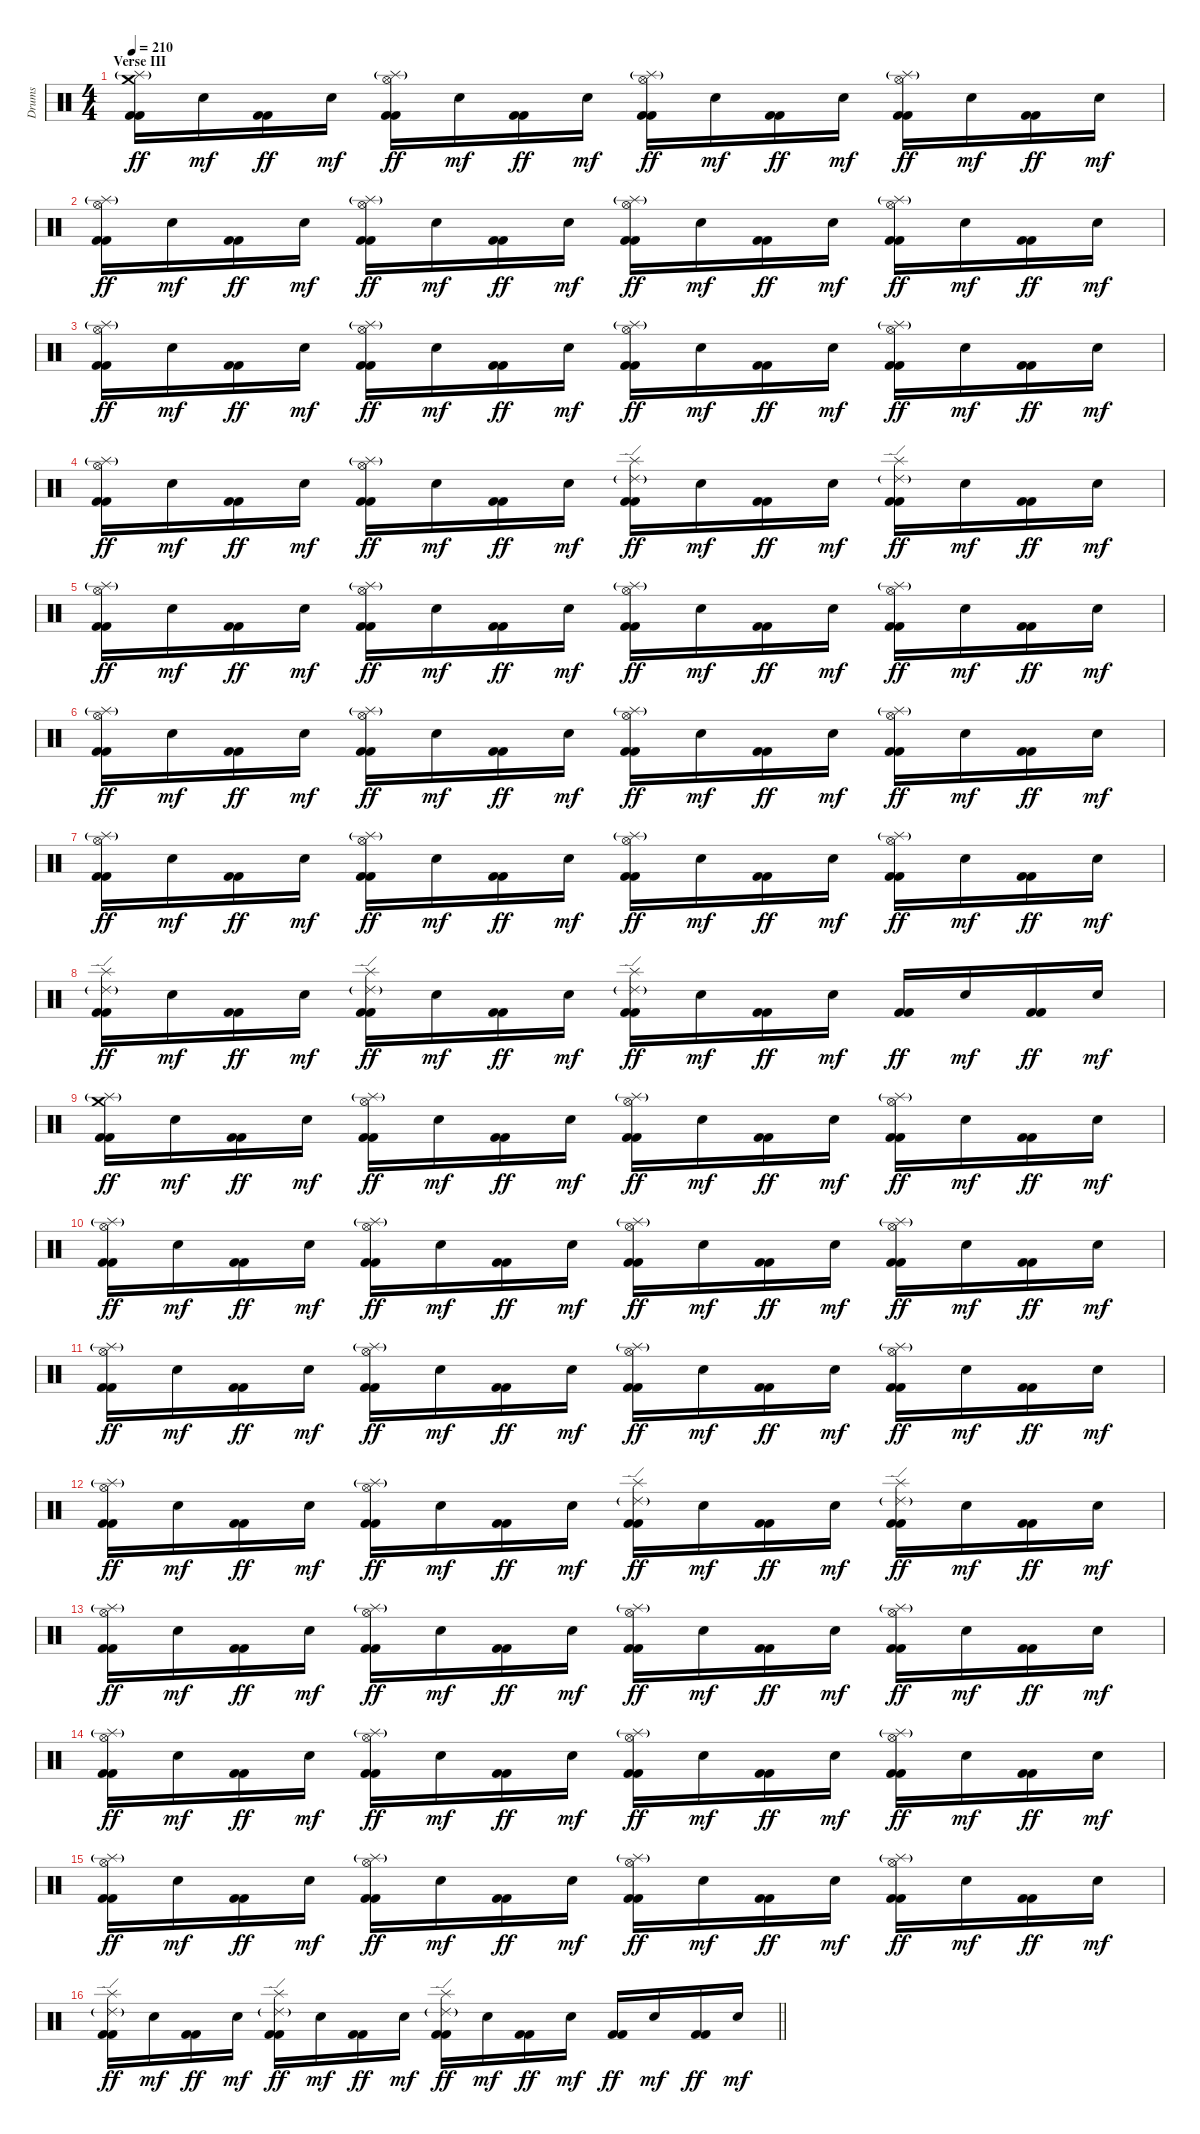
\track ("Drums" "Drums") {instrument percussion}
\staff {score}
\articulation defaults
\ts (4 4)
\section ("" "Verse III")
\tempo 210
\clef neutral
\ks c
("Crash medium (hit)" "Splash (hit)"{g} "Kick (hit) 2" "Kick (hit) 2").16{dy ff} "Snare (hit) 2".16{dy mf} ("Kick (hit) 2" "Kick (hit) 2").16{dy ff} "Snare (hit) 2".16{dy mf} ("Hi-Hat (open)" "Splash (hit)"{g} "Kick (hit) 2" "Kick (hit) 2").16{dy ff} "Snare (hit) 2".16{dy mf} ("Kick (hit) 2" "Kick (hit) 2").16{dy ff} "Snare (hit) 2".16{dy mf} ("Hi-Hat (open)" "Splash (hit)"{g} "Kick (hit) 2" "Kick (hit) 2").16{dy ff} "Snare (hit) 2".16{dy mf} ("Kick (hit) 2" "Kick (hit) 2").16{dy ff} "Snare (hit) 2".16{dy mf} ("Hi-Hat (open)" "Splash (hit)"{g} "Kick (hit) 2" "Kick (hit) 2").16{dy ff} "Snare (hit) 2".16{dy mf} ("Kick (hit) 2" "Kick (hit) 2").16{dy ff} "Snare (hit) 2".16{dy mf} |
("Hi-Hat (open)" "Splash (hit)"{g} "Kick (hit) 2" "Kick (hit) 2").16{dy ff} "Snare (hit) 2".16{dy mf} ("Kick (hit) 2" "Kick (hit) 2").16{dy ff} "Snare (hit) 2".16{dy mf} ("Hi-Hat (open)" "Splash (hit)"{g} "Kick (hit) 2" "Kick (hit) 2").16{dy ff} "Snare (hit) 2".16{dy mf} ("Kick (hit) 2" "Kick (hit) 2").16{dy ff} "Snare (hit) 2".16{dy mf} ("Hi-Hat (open)" "Splash (hit)"{g} "Kick (hit) 2" "Kick (hit) 2").16{dy ff} "Snare (hit) 2".16{dy mf} ("Kick (hit) 2" "Kick (hit) 2").16{dy ff} "Snare (hit) 2".16{dy mf} ("Hi-Hat (open)" "Splash (hit)"{g} "Kick (hit) 2" "Kick (hit) 2").16{dy ff} "Snare (hit) 2".16{dy mf} ("Kick (hit) 2" "Kick (hit) 2").16{dy ff} "Snare (hit) 2".16{dy mf} |
("Hi-Hat (open)" "Splash (hit)"{g} "Kick (hit) 2" "Kick (hit) 2").16{dy ff} "Snare (hit) 2".16{dy mf} ("Kick (hit) 2" "Kick (hit) 2").16{dy ff} "Snare (hit) 2".16{dy mf} ("Hi-Hat (open)" "Splash (hit)"{g} "Kick (hit) 2" "Kick (hit) 2").16{dy ff} "Snare (hit) 2".16{dy mf} ("Kick (hit) 2" "Kick (hit) 2").16{dy ff} "Snare (hit) 2".16{dy mf} ("Hi-Hat (open)" "Splash (hit)"{g} "Kick (hit) 2" "Kick (hit) 2").16{dy ff} "Snare (hit) 2".16{dy mf} ("Kick (hit) 2" "Kick (hit) 2").16{dy ff} "Snare (hit) 2".16{dy mf} ("Hi-Hat (open)" "Splash (hit)"{g} "Kick (hit) 2" "Kick (hit) 2").16{dy ff} "Snare (hit) 2".16{dy mf} ("Kick (hit) 2" "Kick (hit) 2").16{dy ff} "Snare (hit) 2".16{dy mf} |
("Hi-Hat (open)" "Splash (hit)"{g} "Kick (hit) 2" "Kick (hit) 2").16{dy ff} "Snare (hit) 2".16{dy mf} ("Kick (hit) 2" "Kick (hit) 2").16{dy ff} "Snare (hit) 2".16{dy mf} ("Hi-Hat (open)" "Splash (hit)"{g} "Kick (hit) 2" "Kick (hit) 2").16{dy ff} "Snare (hit) 2".16{dy mf} ("Kick (hit) 2" "Kick (hit) 2").16{dy ff} "Snare (hit) 2".16{dy mf} ("Splash (hit)" "Ride (edge) 2"{g} "Kick (hit) 2" "Kick (hit) 2").16{dy ff} "Snare (hit) 2".16{dy mf} ("Kick (hit) 2" "Kick (hit) 2").16{dy ff} "Snare (hit) 2".16{dy mf} ("Splash (hit)" "Ride (edge) 2"{g} "Kick (hit) 2" "Kick (hit) 2").16{dy ff} "Snare (hit) 2".16{dy mf} ("Kick (hit) 2" "Kick (hit) 2").16{dy ff} "Snare (hit) 2".16{dy mf} |
("Hi-Hat (open)" "Splash (hit)"{g} "Kick (hit) 2" "Kick (hit) 2").16{dy ff} "Snare (hit) 2".16{dy mf} ("Kick (hit) 2" "Kick (hit) 2").16{dy ff} "Snare (hit) 2".16{dy mf} ("Hi-Hat (open)" "Splash (hit)"{g} "Kick (hit) 2" "Kick (hit) 2").16{dy ff} "Snare (hit) 2".16{dy mf} ("Kick (hit) 2" "Kick (hit) 2").16{dy ff} "Snare (hit) 2".16{dy mf} ("Hi-Hat (open)" "Splash (hit)"{g} "Kick (hit) 2" "Kick (hit) 2").16{dy ff} "Snare (hit) 2".16{dy mf} ("Kick (hit) 2" "Kick (hit) 2").16{dy ff} "Snare (hit) 2".16{dy mf} ("Hi-Hat (open)" "Splash (hit)"{g} "Kick (hit) 2" "Kick (hit) 2").16{dy ff} "Snare (hit) 2".16{dy mf} ("Kick (hit) 2" "Kick (hit) 2").16{dy ff} "Snare (hit) 2".16{dy mf} |
("Hi-Hat (open)" "Splash (hit)"{g} "Kick (hit) 2" "Kick (hit) 2").16{dy ff} "Snare (hit) 2".16{dy mf} ("Kick (hit) 2" "Kick (hit) 2").16{dy ff} "Snare (hit) 2".16{dy mf} ("Hi-Hat (open)" "Splash (hit)"{g} "Kick (hit) 2" "Kick (hit) 2").16{dy ff} "Snare (hit) 2".16{dy mf} ("Kick (hit) 2" "Kick (hit) 2").16{dy ff} "Snare (hit) 2".16{dy mf} ("Hi-Hat (open)" "Splash (hit)"{g} "Kick (hit) 2" "Kick (hit) 2").16{dy ff} "Snare (hit) 2".16{dy mf} ("Kick (hit) 2" "Kick (hit) 2").16{dy ff} "Snare (hit) 2".16{dy mf} ("Hi-Hat (open)" "Splash (hit)"{g} "Kick (hit) 2" "Kick (hit) 2").16{dy ff} "Snare (hit) 2".16{dy mf} ("Kick (hit) 2" "Kick (hit) 2").16{dy ff} "Snare (hit) 2".16{dy mf} |
("Hi-Hat (open)" "Splash (hit)"{g} "Kick (hit) 2" "Kick (hit) 2").16{dy ff} "Snare (hit) 2".16{dy mf} ("Kick (hit) 2" "Kick (hit) 2").16{dy ff} "Snare (hit) 2".16{dy mf} ("Hi-Hat (open)" "Splash (hit)"{g} "Kick (hit) 2" "Kick (hit) 2").16{dy ff} "Snare (hit) 2".16{dy mf} ("Kick (hit) 2" "Kick (hit) 2").16{dy ff} "Snare (hit) 2".16{dy mf} ("Hi-Hat (open)" "Splash (hit)"{g} "Kick (hit) 2" "Kick (hit) 2").16{dy ff} "Snare (hit) 2".16{dy mf} ("Kick (hit) 2" "Kick (hit) 2").16{dy ff} "Snare (hit) 2".16{dy mf} ("Hi-Hat (open)" "Splash (hit)"{g} "Kick (hit) 2" "Kick (hit) 2").16{dy ff} "Snare (hit) 2".16{dy mf} ("Kick (hit) 2" "Kick (hit) 2").16{dy ff} "Snare (hit) 2".16{dy mf} |
("Splash (hit)" "Ride (edge) 2"{g} "Kick (hit) 2" "Kick (hit) 2").16{dy ff} "Snare (hit) 2".16{dy mf} ("Kick (hit) 2" "Kick (hit) 2").16{dy ff} "Snare (hit) 2".16{dy mf} ("Splash (hit)" "Ride (edge) 2"{g} "Kick (hit) 2" "Kick (hit) 2").16{dy ff} "Snare (hit) 2".16{dy mf} ("Kick (hit) 2" "Kick (hit) 2").16{dy ff} "Snare (hit) 2".16{dy mf} ("Splash (hit)" "Ride (edge) 2"{g} "Kick (hit) 2" "Kick (hit) 2").16{dy ff} "Snare (hit) 2".16{dy mf} ("Kick (hit) 2" "Kick (hit) 2").16{dy ff} "Snare (hit) 2".16{dy mf} ("Kick (hit) 2" "Kick (hit) 2").16{dy ff} "Snare (hit) 2".16{dy mf} ("Kick (hit) 2" "Kick (hit) 2").16{dy ff} "Snare (hit) 2".16{dy mf} |
("Crash medium (hit)" "Splash (hit)"{g} "Kick (hit) 2" "Kick (hit) 2").16{dy ff} "Snare (hit) 2".16{dy mf} ("Kick (hit) 2" "Kick (hit) 2").16{dy ff} "Snare (hit) 2".16{dy mf} ("Hi-Hat (open)" "Splash (hit)"{g} "Kick (hit) 2" "Kick (hit) 2").16{dy ff} "Snare (hit) 2".16{dy mf} ("Kick (hit) 2" "Kick (hit) 2").16{dy ff} "Snare (hit) 2".16{dy mf} ("Hi-Hat (open)" "Splash (hit)"{g} "Kick (hit) 2" "Kick (hit) 2").16{dy ff} "Snare (hit) 2".16{dy mf} ("Kick (hit) 2" "Kick (hit) 2").16{dy ff} "Snare (hit) 2".16{dy mf} ("Hi-Hat (open)" "Splash (hit)"{g} "Kick (hit) 2" "Kick (hit) 2").16{dy ff} "Snare (hit) 2".16{dy mf} ("Kick (hit) 2" "Kick (hit) 2").16{dy ff} "Snare (hit) 2".16{dy mf} |
("Hi-Hat (open)" "Splash (hit)"{g} "Kick (hit) 2" "Kick (hit) 2").16{dy ff} "Snare (hit) 2".16{dy mf} ("Kick (hit) 2" "Kick (hit) 2").16{dy ff} "Snare (hit) 2".16{dy mf} ("Hi-Hat (open)" "Splash (hit)"{g} "Kick (hit) 2" "Kick (hit) 2").16{dy ff} "Snare (hit) 2".16{dy mf} ("Kick (hit) 2" "Kick (hit) 2").16{dy ff} "Snare (hit) 2".16{dy mf} ("Hi-Hat (open)" "Splash (hit)"{g} "Kick (hit) 2" "Kick (hit) 2").16{dy ff} "Snare (hit) 2".16{dy mf} ("Kick (hit) 2" "Kick (hit) 2").16{dy ff} "Snare (hit) 2".16{dy mf} ("Hi-Hat (open)" "Splash (hit)"{g} "Kick (hit) 2" "Kick (hit) 2").16{dy ff} "Snare (hit) 2".16{dy mf} ("Kick (hit) 2" "Kick (hit) 2").16{dy ff} "Snare (hit) 2".16{dy mf} |
("Hi-Hat (open)" "Splash (hit)"{g} "Kick (hit) 2" "Kick (hit) 2").16{dy ff} "Snare (hit) 2".16{dy mf} ("Kick (hit) 2" "Kick (hit) 2").16{dy ff} "Snare (hit) 2".16{dy mf} ("Hi-Hat (open)" "Splash (hit)"{g} "Kick (hit) 2" "Kick (hit) 2").16{dy ff} "Snare (hit) 2".16{dy mf} ("Kick (hit) 2" "Kick (hit) 2").16{dy ff} "Snare (hit) 2".16{dy mf} ("Hi-Hat (open)" "Splash (hit)"{g} "Kick (hit) 2" "Kick (hit) 2").16{dy ff} "Snare (hit) 2".16{dy mf} ("Kick (hit) 2" "Kick (hit) 2").16{dy ff} "Snare (hit) 2".16{dy mf} ("Hi-Hat (open)" "Splash (hit)"{g} "Kick (hit) 2" "Kick (hit) 2").16{dy ff} "Snare (hit) 2".16{dy mf} ("Kick (hit) 2" "Kick (hit) 2").16{dy ff} "Snare (hit) 2".16{dy mf} |
("Hi-Hat (open)" "Splash (hit)"{g} "Kick (hit) 2" "Kick (hit) 2").16{dy ff} "Snare (hit) 2".16{dy mf} ("Kick (hit) 2" "Kick (hit) 2").16{dy ff} "Snare (hit) 2".16{dy mf} ("Hi-Hat (open)" "Splash (hit)"{g} "Kick (hit) 2" "Kick (hit) 2").16{dy ff} "Snare (hit) 2".16{dy mf} ("Kick (hit) 2" "Kick (hit) 2").16{dy ff} "Snare (hit) 2".16{dy mf} ("Splash (hit)" "Ride (edge) 2"{g} "Kick (hit) 2" "Kick (hit) 2").16{dy ff} "Snare (hit) 2".16{dy mf} ("Kick (hit) 2" "Kick (hit) 2").16{dy ff} "Snare (hit) 2".16{dy mf} ("Splash (hit)" "Ride (edge) 2"{g} "Kick (hit) 2" "Kick (hit) 2").16{dy ff} "Snare (hit) 2".16{dy mf} ("Kick (hit) 2" "Kick (hit) 2").16{dy ff} "Snare (hit) 2".16{dy mf} |
("Hi-Hat (open)" "Splash (hit)"{g} "Kick (hit) 2" "Kick (hit) 2").16{dy ff} "Snare (hit) 2".16{dy mf} ("Kick (hit) 2" "Kick (hit) 2").16{dy ff} "Snare (hit) 2".16{dy mf} ("Hi-Hat (open)" "Splash (hit)"{g} "Kick (hit) 2" "Kick (hit) 2").16{dy ff} "Snare (hit) 2".16{dy mf} ("Kick (hit) 2" "Kick (hit) 2").16{dy ff} "Snare (hit) 2".16{dy mf} ("Hi-Hat (open)" "Splash (hit)"{g} "Kick (hit) 2" "Kick (hit) 2").16{dy ff} "Snare (hit) 2".16{dy mf} ("Kick (hit) 2" "Kick (hit) 2").16{dy ff} "Snare (hit) 2".16{dy mf} ("Hi-Hat (open)" "Splash (hit)"{g} "Kick (hit) 2" "Kick (hit) 2").16{dy ff} "Snare (hit) 2".16{dy mf} ("Kick (hit) 2" "Kick (hit) 2").16{dy ff} "Snare (hit) 2".16{dy mf} |
("Hi-Hat (open)" "Splash (hit)"{g} "Kick (hit) 2" "Kick (hit) 2").16{dy ff} "Snare (hit) 2".16{dy mf} ("Kick (hit) 2" "Kick (hit) 2").16{dy ff} "Snare (hit) 2".16{dy mf} ("Hi-Hat (open)" "Splash (hit)"{g} "Kick (hit) 2" "Kick (hit) 2").16{dy ff} "Snare (hit) 2".16{dy mf} ("Kick (hit) 2" "Kick (hit) 2").16{dy ff} "Snare (hit) 2".16{dy mf} ("Hi-Hat (open)" "Splash (hit)"{g} "Kick (hit) 2" "Kick (hit) 2").16{dy ff} "Snare (hit) 2".16{dy mf} ("Kick (hit) 2" "Kick (hit) 2").16{dy ff} "Snare (hit) 2".16{dy mf} ("Hi-Hat (open)" "Splash (hit)"{g} "Kick (hit) 2" "Kick (hit) 2").16{dy ff} "Snare (hit) 2".16{dy mf} ("Kick (hit) 2" "Kick (hit) 2").16{dy ff} "Snare (hit) 2".16{dy mf} |
("Hi-Hat (open)" "Splash (hit)"{g} "Kick (hit) 2" "Kick (hit) 2").16{dy ff} "Snare (hit) 2".16{dy mf} ("Kick (hit) 2" "Kick (hit) 2").16{dy ff} "Snare (hit) 2".16{dy mf} ("Hi-Hat (open)" "Splash (hit)"{g} "Kick (hit) 2" "Kick (hit) 2").16{dy ff} "Snare (hit) 2".16{dy mf} ("Kick (hit) 2" "Kick (hit) 2").16{dy ff} "Snare (hit) 2".16{dy mf} ("Hi-Hat (open)" "Splash (hit)"{g} "Kick (hit) 2" "Kick (hit) 2").16{dy ff} "Snare (hit) 2".16{dy mf} ("Kick (hit) 2" "Kick (hit) 2").16{dy ff} "Snare (hit) 2".16{dy mf} ("Hi-Hat (open)" "Splash (hit)"{g} "Kick (hit) 2" "Kick (hit) 2").16{dy ff} "Snare (hit) 2".16{dy mf} ("Kick (hit) 2" "Kick (hit) 2").16{dy ff} "Snare (hit) 2".16{dy mf} |
\barLineRight lightlight
("Splash (hit)" "Ride (edge) 2"{g} "Kick (hit) 2" "Kick (hit) 2").16{dy ff} "Snare (hit) 2".16{dy mf} ("Kick (hit) 2" "Kick (hit) 2").16{dy ff} "Snare (hit) 2".16{dy mf} ("Splash (hit)" "Ride (edge) 2"{g} "Kick (hit) 2" "Kick (hit) 2").16{dy ff} "Snare (hit) 2".16{dy mf} ("Kick (hit) 2" "Kick (hit) 2").16{dy ff} "Snare (hit) 2".16{dy mf} ("Splash (hit)" "Ride (edge) 2"{g} "Kick (hit) 2" "Kick (hit) 2").16{dy ff} "Snare (hit) 2".16{dy mf} ("Kick (hit) 2" "Kick (hit) 2").16{dy ff} "Snare (hit) 2".16{dy mf} ("Kick (hit) 2" "Kick (hit) 2").16{dy ff} "Snare (hit) 2".16{dy mf} ("Kick (hit) 2" "Kick (hit) 2").16{dy ff} "Snare (hit) 2".16{dy mf}
